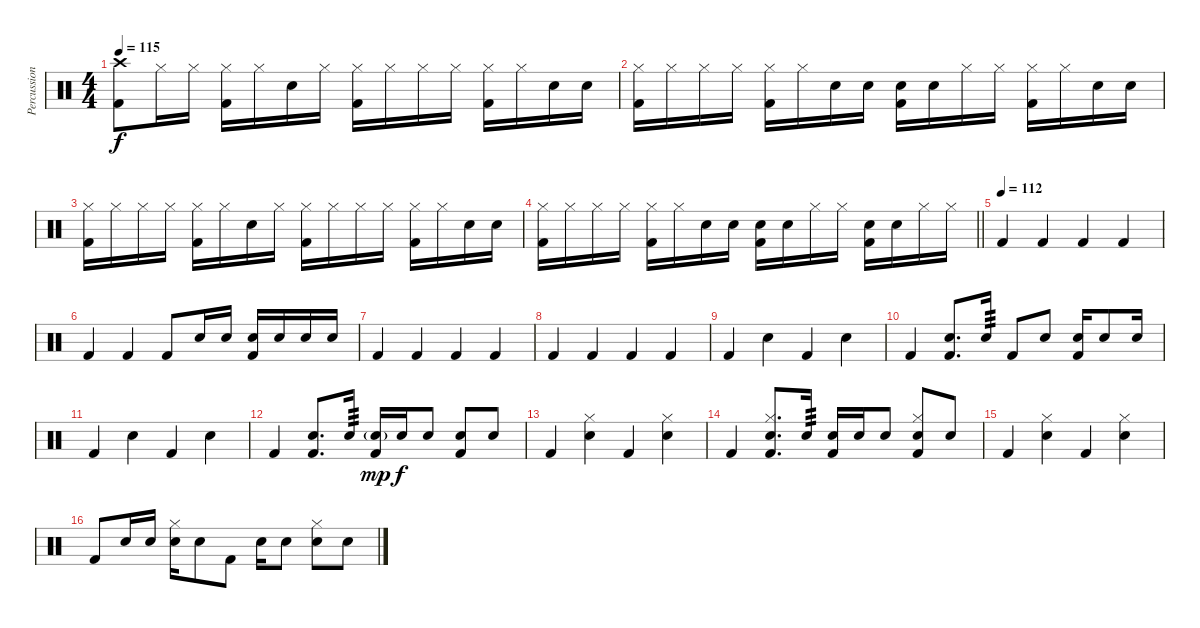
\track ("Percussion" "Percussion") {instrument percussion}
\staff {score}
\articulation defaults
\ts (4 4)
\tempo 115
\clef neutral
\ks c
("Crash high (hit)" "Kick (hit) 2").8{dy f} "Hi-Hat (closed)".16 "Hi-Hat (closed)".16 ("Hi-Hat (closed)" "Kick (hit) 2").16 "Hi-Hat (closed)".16 "Snare (hit) 2".16 "Hi-Hat (closed)".16 ("Hi-Hat (closed)" "Kick (hit) 2").16 "Hi-Hat (closed)".16 "Hi-Hat (closed)".16 "Hi-Hat (closed)".16 ("Hi-Hat (closed)" "Kick (hit) 2").16 "Hi-Hat (closed)".16 "Snare (hit) 2".16 "Snare (hit) 2".16 |
("Hi-Hat (closed)" "Kick (hit) 2").16 "Hi-Hat (closed)".16 "Hi-Hat (closed)".16 "Hi-Hat (closed)".16 ("Hi-Hat (closed)" "Kick (hit) 2").16 "Hi-Hat (closed)".16 "Snare (hit) 2".16 "Snare (hit) 2".16 ("Snare (hit) 2" "Kick (hit) 2").16 "Snare (hit) 2".16 "Hi-Hat (closed)".16 "Hi-Hat (closed)".16 ("Hi-Hat (closed)" "Kick (hit) 2").16 "Hi-Hat (closed)".16 "Snare (hit) 2".16 "Snare (hit) 2".16 |
("Hi-Hat (closed)" "Kick (hit) 2").16 "Hi-Hat (closed)".16 "Hi-Hat (closed)".16 "Hi-Hat (closed)".16 ("Hi-Hat (closed)" "Kick (hit) 2").16 "Hi-Hat (closed)".16 "Snare (hit) 2".16 "Hi-Hat (closed)".16 ("Hi-Hat (closed)" "Kick (hit) 2").16 "Hi-Hat (closed)".16 "Hi-Hat (closed)".16 "Hi-Hat (closed)".16 ("Hi-Hat (closed)" "Kick (hit) 2").16 "Hi-Hat (closed)".16 "Snare (hit) 2".16 "Snare (hit) 2".16 |
\barLineRight lightlight
("Hi-Hat (closed)" "Kick (hit) 2").16 "Hi-Hat (closed)".16 "Hi-Hat (closed)".16 "Hi-Hat (closed)".16 ("Hi-Hat (closed)" "Kick (hit) 2").16 "Hi-Hat (closed)".16 "Snare (hit) 2".16 "Snare (hit) 2".16 ("Snare (hit) 2" "Kick (hit) 2").16 "Snare (hit) 2".16 "Hi-Hat (closed)".16 "Hi-Hat (closed)".16 ("Snare (hit) 2" "Kick (hit) 2").16 "Snare (hit) 2".16 "Hi-Hat (closed)".16 "Hi-Hat (closed)".16 |
\tempo (112)
"Kick (hit) 2".4 "Kick (hit) 2".4 "Kick (hit) 2".4 "Kick (hit) 2".4 |
"Kick (hit) 2".4 "Kick (hit) 2".4 "Kick (hit) 2".8 "Snare (hit) 2".16 "Snare (hit) 2".16 ("Snare (hit) 2" "Kick (hit) 2").16 "Snare (hit) 2".16 "Snare (hit) 2".16 "Snare (hit) 2".16 |
"Kick (hit) 2".4 "Kick (hit) 2".4 "Kick (hit) 2".4 "Kick (hit) 2".4 |
"Kick (hit) 2".4 "Kick (hit) 2".4 "Kick (hit) 2".4 "Kick (hit) 2".4 |
"Kick (hit) 2".4 "Snare (hit) 2".4 "Kick (hit) 2".4 "Snare (hit) 2".4 |
"Kick (hit) 2".4 ("Snare (hit) 2" "Kick (hit) 2").8{d} "Snare (hit) 2".16{tp 3} "Kick (hit) 2".8 "Snare (hit) 2".8 ("Snare (hit) 2" "Kick (hit) 2").16 "Snare (hit) 2".8 "Snare (hit) 2".16 |
"Kick (hit) 2".4 "Snare (hit) 2".4 "Kick (hit) 2".4 "Snare (hit) 2".4 |
"Kick (hit) 2".4 ("Snare (hit) 2" "Kick (hit) 2").8{d} "Snare (hit) 2".16{tp 3} ("Snare (hit) 2"{g} "Kick (hit) 2").16{dy mp} "Snare (hit) 2".16{dy f} "Snare (hit) 2".8 ("Snare (hit) 2" "Kick (hit) 2").8 "Snare (hit) 2".8 |
"Kick (hit) 2".4 ("Hi-Hat (closed)" "Snare (hit) 2").4 "Kick (hit) 2".4 ("Hi-Hat (closed)" "Snare (hit) 2").4 |
"Kick (hit) 2".4 ("Hi-Hat (closed)" "Snare (hit) 2" "Kick (hit) 2").8{d} "Snare (hit) 2".16{tp 3} ("Snare (hit) 2" "Kick (hit) 2").16 "Snare (hit) 2".16 "Snare (hit) 2".8 ("Hi-Hat (closed)" "Snare (hit) 2" "Kick (hit) 2").8 "Snare (hit) 2".8 |
"Kick (hit) 2".4 ("Hi-Hat (closed)" "Snare (hit) 2").4 "Kick (hit) 2".4 ("Hi-Hat (closed)" "Snare (hit) 2").4 |
"Kick (hit) 2".8 "Snare (hit) 2".16 "Snare (hit) 2".16 ("Hi-Hat (closed)" "Snare (hit) 2").16 "Snare (hit) 2".8 "Kick (hit) 2".8 "Snare (hit) 2".16 "Snare (hit) 2".8 ("Hi-Hat (closed)" "Snare (hit) 2").8 "Snare (hit) 2".8
